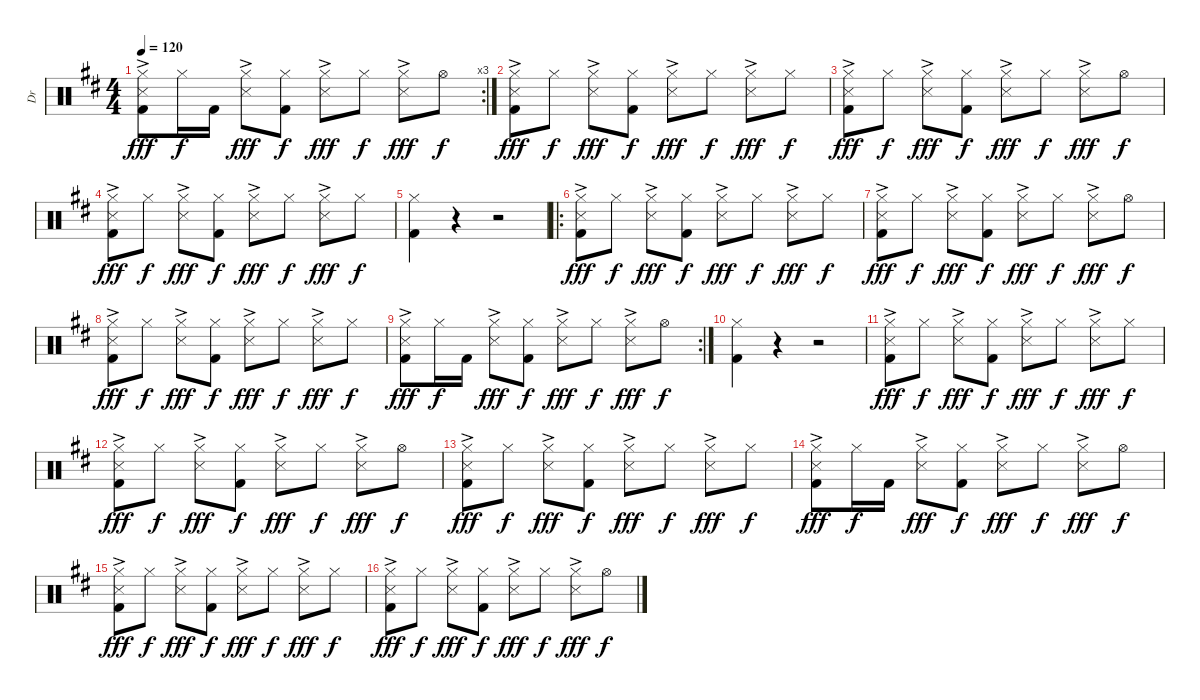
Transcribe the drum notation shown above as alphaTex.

\track ("Dr" "Dr") {instrument percussion}
\staff {score}
\articulation defaults
\rc 3
\ts (4 4)
\tempo 120
\clef neutral
\ks d
("Hi-Hat (closed)" "Snare (side stick) 3"{ac} "Kick (hit) 2").8{dy fff} "Hi-Hat (closed)".16{dy f} "Kick (hit) 2".16 ("Hi-Hat (closed)" "Snare (side stick) 3"{ac}).8{dy fff} ("Hi-Hat (closed)" "Kick (hit) 2").8{dy f} ("Hi-Hat (closed)" "Snare (side stick) 3"{ac}).8{dy fff} "Hi-Hat (closed)".8{dy f} ("Hi-Hat (closed)" "Snare (side stick) 3"{ac}).8{dy fff} "Hi-Hat (open)".8{dy f} |
("Hi-Hat (closed)" "Snare (side stick) 3"{ac} "Kick (hit) 2").8{dy fff} "Hi-Hat (closed)".8{dy f} ("Hi-Hat (closed)" "Snare (side stick) 3"{ac}).8{dy fff} ("Hi-Hat (closed)" "Kick (hit) 2").8{dy f} ("Hi-Hat (closed)" "Snare (side stick) 3"{ac}).8{dy fff} "Hi-Hat (closed)".8{dy f} ("Hi-Hat (closed)" "Snare (side stick) 3"{ac}).8{dy fff} "Hi-Hat (closed)".8{dy f} |
("Hi-Hat (closed)" "Snare (side stick) 3"{ac} "Kick (hit) 2").8{dy fff} "Hi-Hat (closed)".8{dy f} ("Hi-Hat (closed)" "Snare (side stick) 3"{ac}).8{dy fff} ("Hi-Hat (closed)" "Kick (hit) 2").8{dy f} ("Hi-Hat (closed)" "Snare (side stick) 3"{ac}).8{dy fff} "Hi-Hat (closed)".8{dy f} ("Hi-Hat (closed)" "Snare (side stick) 3"{ac}).8{dy fff} "Hi-Hat (open)".8{dy f} |
("Hi-Hat (closed)" "Snare (side stick) 3"{ac} "Kick (hit) 2").8{dy fff} "Hi-Hat (closed)".8{dy f} ("Hi-Hat (closed)" "Snare (side stick) 3"{ac}).8{dy fff} ("Hi-Hat (closed)" "Kick (hit) 2").8{dy f} ("Hi-Hat (closed)" "Snare (side stick) 3"{ac}).8{dy fff} "Hi-Hat (closed)".8{dy f} ("Hi-Hat (closed)" "Snare (side stick) 3"{ac}).8{dy fff} "Hi-Hat (closed)".8{dy f} |
("Hi-Hat (closed)" "Kick (hit) 2").4 r.4 r.2 |
\ro
("Hi-Hat (closed)" "Snare (side stick) 3"{ac} "Kick (hit) 2").8{dy fff} "Hi-Hat (closed)".8{dy f} ("Hi-Hat (closed)" "Snare (side stick) 3"{ac}).8{dy fff} ("Hi-Hat (closed)" "Kick (hit) 2").8{dy f} ("Hi-Hat (closed)" "Snare (side stick) 3"{ac}).8{dy fff} "Hi-Hat (closed)".8{dy f} ("Hi-Hat (closed)" "Snare (side stick) 3"{ac}).8{dy fff} "Hi-Hat (closed)".8{dy f} |
("Hi-Hat (closed)" "Snare (side stick) 3"{ac} "Kick (hit) 2").8{dy fff} "Hi-Hat (closed)".8{dy f} ("Hi-Hat (closed)" "Snare (side stick) 3"{ac}).8{dy fff} ("Hi-Hat (closed)" "Kick (hit) 2").8{dy f} ("Hi-Hat (closed)" "Snare (side stick) 3"{ac}).8{dy fff} "Hi-Hat (closed)".8{dy f} ("Hi-Hat (closed)" "Snare (side stick) 3"{ac}).8{dy fff} "Hi-Hat (open)".8{dy f} |
("Hi-Hat (closed)" "Snare (side stick) 3"{ac} "Kick (hit) 2").8{dy fff} "Hi-Hat (closed)".8{dy f} ("Hi-Hat (closed)" "Snare (side stick) 3"{ac}).8{dy fff} ("Hi-Hat (closed)" "Kick (hit) 2").8{dy f} ("Hi-Hat (closed)" "Snare (side stick) 3"{ac}).8{dy fff} "Hi-Hat (closed)".8{dy f} ("Hi-Hat (closed)" "Snare (side stick) 3"{ac}).8{dy fff} "Hi-Hat (closed)".8{dy f} |
\rc 2
("Hi-Hat (closed)" "Snare (side stick) 3"{ac} "Kick (hit) 2").8{dy fff} "Hi-Hat (closed)".16{dy f} "Kick (hit) 2".16 ("Hi-Hat (closed)" "Snare (side stick) 3"{ac}).8{dy fff} ("Hi-Hat (closed)" "Kick (hit) 2").8{dy f} ("Hi-Hat (closed)" "Snare (side stick) 3"{ac}).8{dy fff} "Hi-Hat (closed)".8{dy f} ("Hi-Hat (closed)" "Snare (side stick) 3"{ac}).8{dy fff} "Hi-Hat (open)".8{dy f} |
("Hi-Hat (closed)" "Kick (hit) 2").4 r.4 r.2 |
("Hi-Hat (closed)" "Snare (side stick) 3"{ac} "Kick (hit) 2").8{dy fff} "Hi-Hat (closed)".8{dy f} ("Hi-Hat (closed)" "Snare (side stick) 3"{ac}).8{dy fff} ("Hi-Hat (closed)" "Kick (hit) 2").8{dy f} ("Hi-Hat (closed)" "Snare (side stick) 3"{ac}).8{dy fff} "Hi-Hat (closed)".8{dy f} ("Hi-Hat (closed)" "Snare (side stick) 3"{ac}).8{dy fff} "Hi-Hat (closed)".8{dy f} |
("Hi-Hat (closed)" "Snare (side stick) 3"{ac} "Kick (hit) 2").8{dy fff} "Hi-Hat (closed)".8{dy f} ("Hi-Hat (closed)" "Snare (side stick) 3"{ac}).8{dy fff} ("Hi-Hat (closed)" "Kick (hit) 2").8{dy f} ("Hi-Hat (closed)" "Snare (side stick) 3"{ac}).8{dy fff} "Hi-Hat (closed)".8{dy f} ("Hi-Hat (closed)" "Snare (side stick) 3"{ac}).8{dy fff} "Hi-Hat (open)".8{dy f} |
("Hi-Hat (closed)" "Snare (side stick) 3"{ac} "Kick (hit) 2").8{dy fff} "Hi-Hat (closed)".8{dy f} ("Hi-Hat (closed)" "Snare (side stick) 3"{ac}).8{dy fff} ("Hi-Hat (closed)" "Kick (hit) 2").8{dy f} ("Hi-Hat (closed)" "Snare (side stick) 3"{ac}).8{dy fff} "Hi-Hat (closed)".8{dy f} ("Hi-Hat (closed)" "Snare (side stick) 3"{ac}).8{dy fff} "Hi-Hat (closed)".8{dy f} |
("Hi-Hat (closed)" "Snare (side stick) 3"{ac} "Kick (hit) 2").8{dy fff} "Hi-Hat (closed)".16{dy f} "Kick (hit) 2".16 ("Hi-Hat (closed)" "Snare (side stick) 3"{ac}).8{dy fff} ("Hi-Hat (closed)" "Kick (hit) 2").8{dy f} ("Hi-Hat (closed)" "Snare (side stick) 3"{ac}).8{dy fff} "Hi-Hat (closed)".8{dy f} ("Hi-Hat (closed)" "Snare (side stick) 3"{ac}).8{dy fff} "Hi-Hat (open)".8{dy f} |
("Hi-Hat (closed)" "Snare (side stick) 3"{ac} "Kick (hit) 2").8{dy fff} "Hi-Hat (closed)".8{dy f} ("Hi-Hat (closed)" "Snare (side stick) 3"{ac}).8{dy fff} ("Hi-Hat (closed)" "Kick (hit) 2").8{dy f} ("Hi-Hat (closed)" "Snare (side stick) 3"{ac}).8{dy fff} "Hi-Hat (closed)".8{dy f} ("Hi-Hat (closed)" "Snare (side stick) 3"{ac}).8{dy fff} "Hi-Hat (closed)".8{dy f} |
("Hi-Hat (closed)" "Snare (side stick) 3"{ac} "Kick (hit) 2").8{dy fff} "Hi-Hat (closed)".8{dy f} ("Hi-Hat (closed)" "Snare (side stick) 3"{ac}).8{dy fff} ("Hi-Hat (closed)" "Kick (hit) 2").8{dy f} ("Hi-Hat (closed)" "Snare (side stick) 3"{ac}).8{dy fff} "Hi-Hat (closed)".8{dy f} ("Hi-Hat (closed)" "Snare (side stick) 3"{ac}).8{dy fff} "Hi-Hat (open)".8{dy f}
